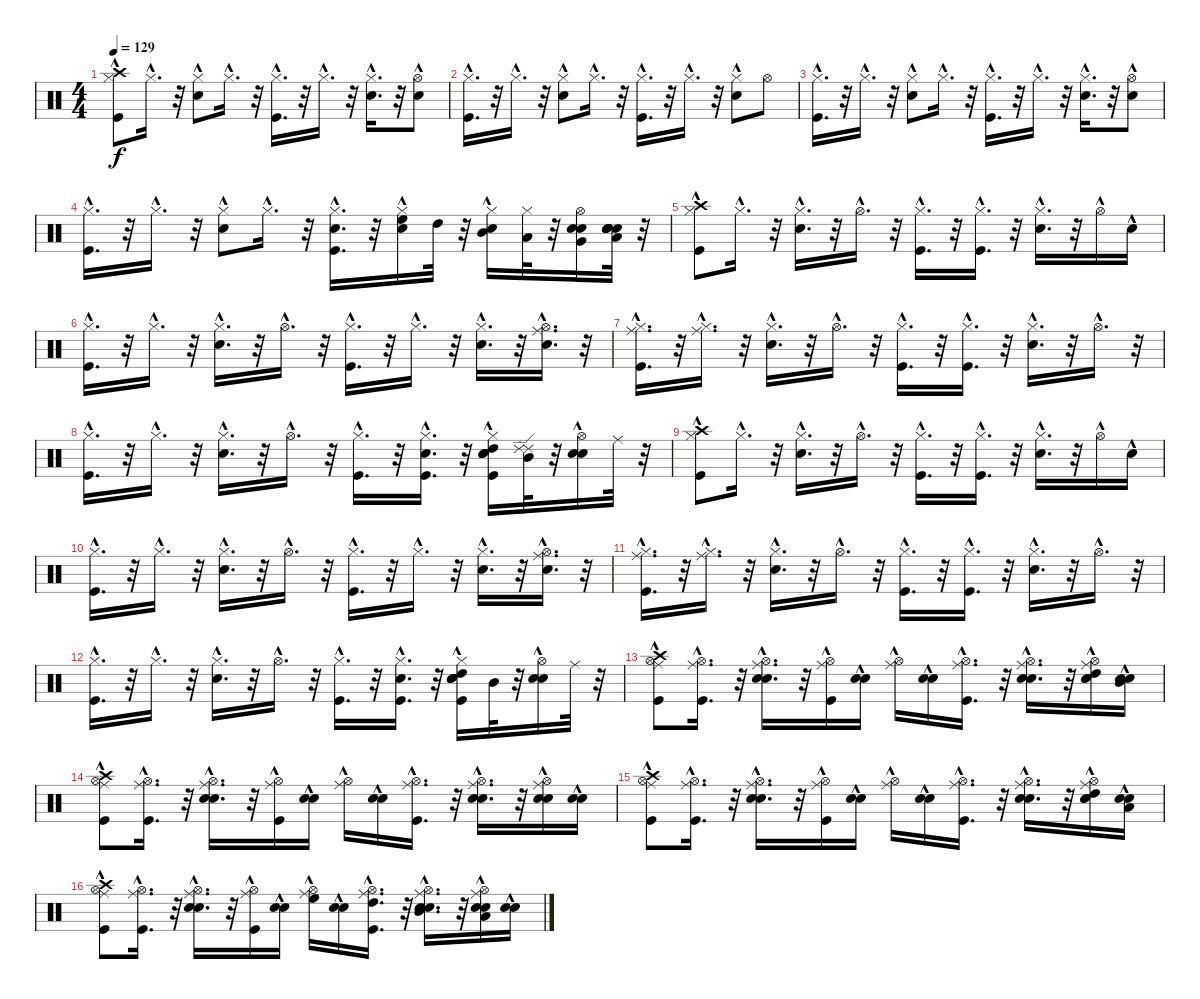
\track "" {instrument percussion}
\staff {score}
\articulation defaults
\ts (4 4)
\tempo 129
\clef neutral
\ks c
("Crash high (hit)" "Hi-Hat (closed)"{hac} "Kick (hit)"{hac}).8{dy f} "Hi-Hat (closed)"{hac}.16{d} r.32 ("Hi-Hat (closed)"{hac} "Snare (hit) 2").8 "Hi-Hat (closed)"{hac}.16{d} r.32 ("Hi-Hat (closed)"{hac} "Kick (hit)"{hac}).16{d} r.32 "Hi-Hat (closed)"{hac}.16{d} r.32 ("Hi-Hat (closed)"{hac} "Snare (hit) 2"{hac}).16{d} r.32 ("Hi-Hat (open)" "Snare (hit) 2"{hac}).8 |
("Hi-Hat (closed)"{hac} "Kick (hit)"{hac}).16{d} r.32 "Hi-Hat (closed)"{hac}.16{d} r.32 ("Hi-Hat (closed)"{hac} "Snare (hit) 2").8 "Hi-Hat (closed)"{hac}.16{d} r.32 ("Hi-Hat (closed)"{hac} "Kick (hit)"{hac}).16{d} r.32 "Hi-Hat (closed)"{hac}.16{d} r.32 ("Hi-Hat (closed)"{hac} "Snare (hit) 2").8 "Hi-Hat (open)".8 |
("Hi-Hat (closed)"{hac} "Kick (hit)"{hac}).16{d} r.32 "Hi-Hat (closed)"{hac}.16{d} r.32 ("Hi-Hat (closed)"{hac} "Snare (hit) 2").8 "Hi-Hat (closed)"{hac}.16{d} r.32 ("Hi-Hat (closed)"{hac} "Kick (hit)"{hac}).16{d} r.32 "Hi-Hat (closed)"{hac}.16{d} r.32 ("Hi-Hat (closed)"{hac} "Snare (hit) 2"{hac}).16{d} r.32 ("Snare (hit) 2"{hac} "Hi-Hat (open)").8 |
("Hi-Hat (closed)"{hac} "Kick (hit)"{hac}).16{d} r.32 "Hi-Hat (closed)"{hac}.16{d} r.32 ("Hi-Hat (closed)"{hac} "Snare (hit) 2").8 "Hi-Hat (closed)"{hac}.16{d} r.32 ("Snare (hit) 2"{hac} "Hi-Hat (closed)"{hac} "Kick (hit)"{hac}).16{d} r.32 ("High Floor Tom (hit)" "Snare (hit) 2"{hac} "Hi-Hat (closed)"{hac}).16 "High Tom (hit)".32 r.32 ("Mid Tom (hit)" "Hi-Hat (closed)" "Snare (hit) 2"{hac}).16 ("Low Tom (hit)" "Hi-Hat (closed)").32 r.32 ("Very Low Tom (hit)" "Hi-Hat (open)" "Snare (hit) 2" "Snare (hit) 2").16 ("Low Floor Tom (hit)" "Snare (hit) 2" "Snare (hit) 2" "Snare (hit) 2" "Electric Snare (hit)" "Electric Snare (hit)").32 r.32 |
("Hi-Hat (closed)"{hac} "Crash high (hit)" "Kick (hit)"{hac}).8 "Hi-Hat (closed)"{hac}.16{d} r.32 ("Hi-Hat (closed)"{hac} "Snare (hit) 2"{hac}).16{d} r.32 "Hi-Hat (open)"{hac}.16{d} r.32 ("Hi-Hat (closed)"{hac} "Kick (hit)"{hac}).16{d} r.32 ("Hi-Hat (closed)"{hac} "Kick (hit)"{hac}).16{d} r.32 ("Hi-Hat (closed)"{hac} "Snare (hit) 2"{hac}).16{d} r.32 "Hi-Hat (open)"{hac}.16 "Snare (hit) 2"{hac}.16 |
("Hi-Hat (closed)"{hac} "Kick (hit)"{hac}).16{d} r.32 "Hi-Hat (closed)"{hac}.16{d} r.32 ("Hi-Hat (closed)"{hac} "Snare (hit) 2"{hac}).16{d} r.32 "Hi-Hat (open)"{hac}.16{d} r.32 ("Hi-Hat (closed)"{hac} "Kick (hit)"{hac}).16{d} r.32 "Hi-Hat (closed)"{hac}.16{d} r.32 ("Hi-Hat (closed)"{hac} "Snare (hit) 2"{hac}).16{d} r.32 ("Ride (middle)" "Hi-Hat (open)"{hac} "Snare (hit) 2"{hac}).16{d} r.32 |
("Ride (middle)" "Hi-Hat (closed)"{hac} "Kick (hit)"{hac}).16{d} r.32 ("Hi-Hat (closed)"{hac} "Ride (middle)").16{d} r.32 ("Hi-Hat (closed)"{hac} "Snare (hit) 2"{hac}).16{d} r.32 "Hi-Hat (open)"{hac}.16{d} r.32 ("Hi-Hat (closed)"{hac} "Kick (hit)"{hac}).16{d} r.32 ("Hi-Hat (closed)"{hac} "Kick (hit)"{hac}).16{d} r.32 ("Hi-Hat (closed)"{hac} "Snare (hit) 2"{hac}).16{d} r.32 "Hi-Hat (open)"{hac}.16{d} r.32 |
("Hi-Hat (closed)"{hac} "Kick (hit)"{hac}).16{d} r.32 "Hi-Hat (closed)"{hac}.16{d} r.32 ("Hi-Hat (closed)"{hac} "Snare (hit) 2"{hac}).16{d} r.32 "Hi-Hat (open)"{hac}.16{d} r.32 ("Hi-Hat (closed)"{hac} "Kick (hit)"{hac}).16{d} r.32 ("Hi-Hat (closed)"{hac} "Snare (hit) 2"{hac} "Kick (hit)"{hac}).16{d} r.32 ("High Tom (hit)" "Hi-Hat (closed)"{hac} "Hand Clap (hit)"{hac} "Electric Snare (hit)"{hac} "Snare (hit) 2"{hac} "Kick (hit)"{hac}).16 ("Ride (edge) 2" "Ride (edge) 2" "Mid Tom (hit)").32 r.32 ("Hi-Hat (open)"{hac} "Hand Clap (hit)"{hac} "Snare (hit) 2"{hac}).16 "Ride (middle)".32 r.32 |
("Hi-Hat (closed)"{hac} "Crash high (hit)" "Kick (hit)"{hac}).8 "Hi-Hat (closed)"{hac}.16{d} r.32 ("Hi-Hat (closed)"{hac} "Snare (hit) 2"{hac}).16{d} r.32 "Hi-Hat (open)"{hac}.16{d} r.32 ("Hi-Hat (closed)"{hac} "Kick (hit)"{hac}).16{d} r.32 ("Hi-Hat (closed)"{hac} "Kick (hit)"{hac}).16{d} r.32 ("Hi-Hat (closed)"{hac} "Snare (hit) 2"{hac}).16{d} r.32 "Hi-Hat (open)"{hac}.16 "Snare (hit) 2"{hac}.16 |
("Hi-Hat (closed)"{hac} "Kick (hit)"{hac}).16{d} r.32 "Hi-Hat (closed)"{hac}.16{d} r.32 ("Hi-Hat (closed)"{hac} "Snare (hit) 2"{hac}).16{d} r.32 "Hi-Hat (open)"{hac}.16{d} r.32 ("Hi-Hat (closed)"{hac} "Kick (hit)"{hac}).16{d} r.32 "Hi-Hat (closed)"{hac}.16{d} r.32 ("Hi-Hat (closed)"{hac} "Snare (hit) 2"{hac}).16{d} r.32 ("Ride (middle)" "Hi-Hat (open)"{hac} "Snare (hit) 2"{hac}).16{d} r.32 |
("Ride (middle)" "Hi-Hat (closed)"{hac} "Kick (hit)"{hac}).16{d} r.32 ("Hi-Hat (closed)"{hac} "Ride (middle)").16{d} r.32 ("Hi-Hat (closed)"{hac} "Snare (hit) 2"{hac}).16{d} r.32 "Hi-Hat (open)"{hac}.16{d} r.32 ("Hi-Hat (closed)"{hac} "Kick (hit)"{hac}).16{d} r.32 ("Hi-Hat (closed)"{hac} "Kick (hit)"{hac}).16{d} r.32 ("Hi-Hat (closed)"{hac} "Snare (hit) 2"{hac}).16{d} r.32 "Hi-Hat (open)"{hac}.16{d} r.32 |
("Hi-Hat (closed)"{hac} "Kick (hit)"{hac}).16{d} r.32 "Hi-Hat (closed)"{hac}.16{d} r.32 ("Hi-Hat (closed)"{hac} "Snare (hit) 2"{hac}).16{d} r.32 "Hi-Hat (open)"{hac}.16{d} r.32 ("Hi-Hat (closed)"{hac} "Kick (hit)"{hac}).16{d} r.32 ("Hi-Hat (closed)"{hac} "Snare (hit) 2"{hac} "Kick (hit)"{hac}).16{d} r.32 ("High Tom (hit)" "Hi-Hat (closed)"{hac} "Hand Clap (hit)"{hac} "Electric Snare (hit)"{hac} "Snare (hit) 2"{hac} "Kick (hit)"{hac}).16 "Mid Tom (hit)".32 r.32 ("Hi-Hat (open)"{hac} "Hand Clap (hit)"{hac} "Snare (hit) 2"{hac}).16 "Ride (middle)".32 r.32 |
("Ride (middle)" "Kick (hit)"{hac} "Hi-Hat (open)"{hac} "Crash high (hit)").8 ("Kick (hit)"{hac} "Ride (middle)" "Hi-Hat (open)"{hac}).16{d} r.32 ("Electric Snare (hit)"{hac} "Snare (hit) 2"{hac} "Ride (middle)" "Hi-Hat (open)"{hac}).16{d} r.32 ("Kick (hit)"{hac} "Ride (middle)" "Hi-Hat (open)"{hac}).16 ("Electric Snare (hit)"{hac} "Snare (hit) 2"{hac}).16 ("Ride (middle)" "Hi-Hat (open)"{hac}).16 ("Electric Snare (hit)"{hac} "Snare (hit) 2"{hac}).16 ("Kick (hit)"{hac} "Ride (middle)" "Hi-Hat (open)"{hac}).16{d} r.32 ("Electric Snare (hit)"{hac} "Snare (hit) 2"{hac} "Ride (middle)" "Hi-Hat (open)"{hac}).16{d} r.32 ("Electric Snare (hit)" "High Tom (hit)"{hac} "Snare (hit) 2" "Ride (middle)" "Hi-Hat (open)"{hac}).16 ("Electric Snare (hit)"{hac} "Mid Tom (hit)"{hac} "Snare (hit) 2"{hac}).16 |
("Ride (middle)" "Kick (hit)"{hac} "Hi-Hat (open)"{hac} "Crash high (hit)").8 ("Kick (hit)"{hac} "Ride (middle)" "Hi-Hat (open)"{hac}).16{d} r.32 ("Electric Snare (hit)"{hac} "Snare (hit) 2"{hac} "Ride (middle)" "Hi-Hat (open)"{hac}).16{d} r.32 ("Kick (hit)"{hac} "Ride (middle)" "Hi-Hat (open)"{hac}).16 ("Electric Snare (hit)"{hac} "Snare (hit) 2"{hac}).16 ("Ride (middle)" "Hi-Hat (open)"{hac}).16 ("Electric Snare (hit)"{hac} "Snare (hit) 2"{hac}).16 ("Kick (hit)"{hac} "Ride (middle)" "Hi-Hat (open)"{hac}).16{d} r.32 ("Electric Snare (hit)"{hac} "Snare (hit) 2"{hac} "Ride (middle)" "Hi-Hat (open)"{hac}).16{d} r.32 ("Electric Snare (hit)" "Snare (hit) 2" "Ride (middle)" "Hi-Hat (open)"{hac}).16 ("Electric Snare (hit)"{hac} "Snare (hit) 2"{hac}).16 |
("Ride (middle)" "Kick (hit)"{hac} "Hi-Hat (open)"{hac} "Crash high (hit)").8 ("Kick (hit)"{hac} "Ride (middle)" "Hi-Hat (open)"{hac}).16{d} r.32 ("Electric Snare (hit)"{hac} "Snare (hit) 2"{hac} "Ride (middle)" "Hi-Hat (open)"{hac}).16{d} r.32 ("Kick (hit)"{hac} "Ride (middle)" "Hi-Hat (open)"{hac}).16 ("Electric Snare (hit)"{hac} "Snare (hit) 2"{hac}).16 ("Ride (middle)" "Hi-Hat (open)"{hac}).16 ("Electric Snare (hit)"{hac} "Snare (hit) 2"{hac}).16 ("Kick (hit)"{hac} "Ride (middle)" "Hi-Hat (open)"{hac}).16{d} r.32 ("Electric Snare (hit)"{hac} "Snare (hit) 2"{hac} "Ride (middle)" "Hi-Hat (open)"{hac}).16{d} r.32 ("Electric Snare (hit)" "High Tom (hit)"{hac} "Snare (hit) 2" "Ride (middle)" "Hi-Hat (open)"{hac}).16 ("Electric Snare (hit)"{hac} "Low Tom (hit)"{hac} "Snare (hit) 2"{hac}).16 |
("Ride (middle)" "Kick (hit)"{hac} "Hi-Hat (open)"{hac} "Crash high (hit)").8 ("Kick (hit)"{hac} "Ride (middle)" "Hi-Hat (open)"{hac}).16{d} r.32 ("Electric Snare (hit)"{hac} "Snare (hit) 2"{hac} "Ride (middle)" "Hi-Hat (open)"{hac}).16{d} r.32 ("Kick (hit)"{hac} "Ride (middle)" "Hi-Hat (open)"{hac}).16 ("Electric Snare (hit)"{hac} "Snare (hit) 2"{hac}).16 ("High Floor Tom (hit)"{hac} "Ride (middle)" "Hi-Hat (open)"{hac}).16 ("Electric Snare (hit)"{hac} "Snare (hit) 2"{hac}).16 ("High Tom (hit)"{hac} "Kick (hit)"{hac} "Ride (middle)" "Hi-Hat (open)"{hac}).16{d} r.32 ("Electric Snare (hit)"{hac} "Mid Tom (hit)"{hac} "Snare (hit) 2"{hac} "Ride (middle)" "Hi-Hat (open)"{hac}).16{d} r.32 ("Electric Snare (hit)" "Snare (hit) 2" "Low Tom (hit)"{hac} "Ride (middle)" "Hi-Hat (open)"{hac}).16 ("Electric Snare (hit)"{hac} "Snare (hit) 2").16
